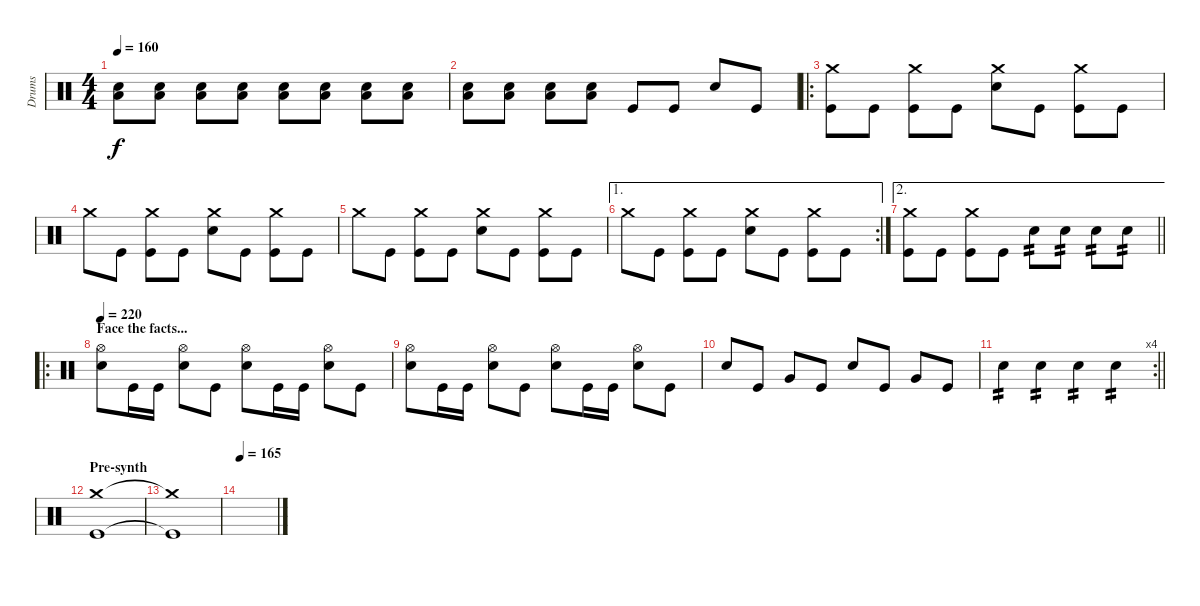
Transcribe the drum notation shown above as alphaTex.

\track ("Drums" "Drums") {instrument percussion}
\staff {score}
\articulation defaults
\ts (4 4)
\tempo 160
\clef neutral
\ks c
("Low Floor Tom (hit)" "Electric Snare (hit)").8{dy f} ("Low Floor Tom (hit)" "Electric Snare (hit)").8 ("Low Floor Tom (hit)" "Electric Snare (hit)").8 ("Low Floor Tom (hit)" "Electric Snare (hit)").8 ("Low Floor Tom (hit)" "Electric Snare (hit)").8 ("Low Floor Tom (hit)" "Electric Snare (hit)").8 ("Low Floor Tom (hit)" "Electric Snare (hit)").8 ("Low Floor Tom (hit)" "Electric Snare (hit)").8 |
("Low Floor Tom (hit)" "Electric Snare (hit)").8 ("Low Floor Tom (hit)" "Electric Snare (hit)").8 ("Low Floor Tom (hit)" "Electric Snare (hit)").8 ("Low Floor Tom (hit)" "Electric Snare (hit)").8 "Kick (hit)".8 "Kick (hit)".8 "Electric Snare (hit)".8 "Kick (hit)".8 |
\ro
("Crash medium (hit)" "Kick (hit)").8 "Kick (hit)".8 ("Crash medium (hit)" "Kick (hit)").8 "Kick (hit)".8 ("Crash medium (hit)" "Electric Snare (hit)").8 "Kick (hit)".8 ("Crash medium (hit)" "Kick (hit)").8 "Kick (hit)".8 |
"Crash medium (hit)".8 "Kick (hit)".8 ("Crash medium (hit)" "Kick (hit)").8 "Kick (hit)".8 ("Crash medium (hit)" "Electric Snare (hit)").8 "Kick (hit)".8 ("Crash medium (hit)" "Kick (hit)").8 "Kick (hit)".8 |
"Crash medium (hit)".8 "Kick (hit)".8 ("Crash medium (hit)" "Kick (hit)").8 "Kick (hit)".8 ("Crash medium (hit)" "Electric Snare (hit)").8 "Kick (hit)".8 ("Crash medium (hit)" "Kick (hit)").8 "Kick (hit)".8 |
\ae 1
\rc 2 "Crash medium (hit)".8 "Kick (hit)".8
("Crash medium (hit)" "Kick (hit)").8 "Kick (hit)".8 ("Crash medium (hit)" "Electric Snare (hit)").8 "Kick (hit)".8 ("Crash medium (hit)" "Kick (hit)").8 "Kick (hit)".8 |
\ae 2
\barLineRight lightlight
("Crash medium (hit)" "Kick (hit)").8 "Kick (hit)".8 ("Crash medium (hit)" "Kick (hit)").8 "Kick (hit)".8 "Electric Snare (hit)".8{tp 2} "Electric Snare (hit)".8{tp 2} "Electric Snare (hit)".8{tp 2} "Electric Snare (hit)".8{tp 2} |
\ro
\section ("" "Face the facts...")
\tempo 220
("Hi-Hat (open)" "Electric Snare (hit)").8 "Kick (hit)".16 "Kick (hit)".16 ("Hi-Hat (open)" "Electric Snare (hit)").8 "Kick (hit)".8 ("Hi-Hat (open)" "Electric Snare (hit)").8 "Kick (hit)".16 "Kick (hit)".16 ("Hi-Hat (open)" "Electric Snare (hit)").8 "Kick (hit)".8 |
("Hi-Hat (open)" "Electric Snare (hit)").8 "Kick (hit)".16 "Kick (hit)".16 ("Hi-Hat (open)" "Electric Snare (hit)").8 "Kick (hit)".8 ("Hi-Hat (open)" "Electric Snare (hit)").8 "Kick (hit)".16 "Kick (hit)".16 ("Hi-Hat (open)" "Electric Snare (hit)").8 "Kick (hit)".8 |
"Electric Snare (hit)".8 "Kick (hit)".8 "Very Low Tom (hit)".8 "Kick (hit)".8 "Electric Snare (hit)".8 "Kick (hit)".8 "Very Low Tom (hit)".8 "Kick (hit)".8 |
\rc 4
\barLineRight lightlight "Electric Snare (hit)".4{tp 2} "Electric Snare (hit)".4{tp 2} "Electric Snare (hit)".4{tp 2} "Electric Snare (hit)".4{tp 2}
|
\section ("" "Pre-synth")
("Crash medium (hit)" "Kick (hit)").1 |
("Crash medium (hit)"{t} "Kick (hit)"{t}).1 |
\tempo 165
